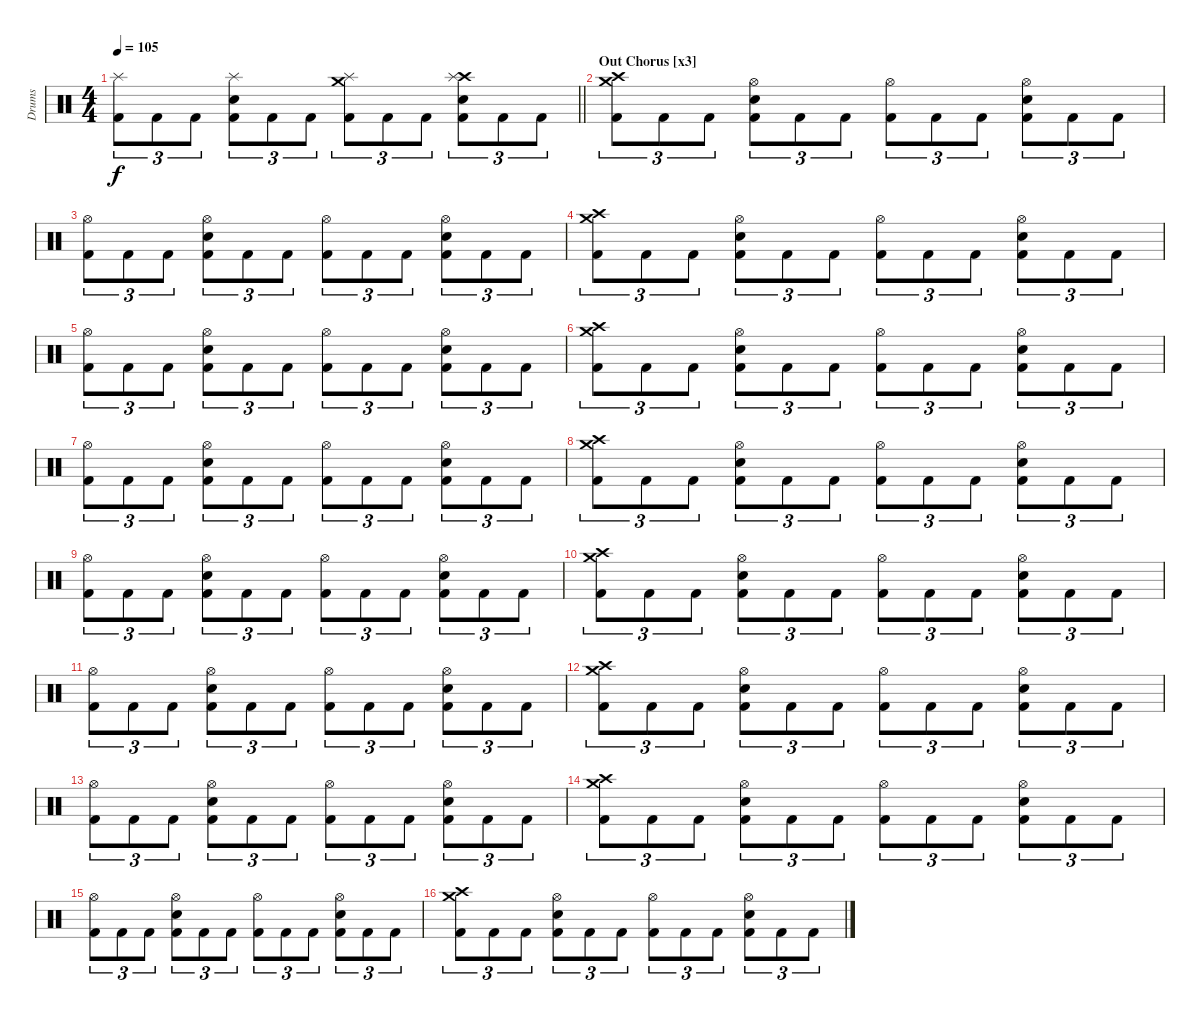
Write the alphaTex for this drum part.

\track ("Drums" "Drums") {instrument percussion}
\staff {score}
\articulation defaults
\ts (4 4)
\tempo 105
\clef neutral
\barLineRight lightlight
\ks c
("Splash (hit)" "Kick (hit) 2").8{tu (3 2) dy f} "Kick (hit) 2".8{tu (3 2)} "Kick (hit) 2".8{tu (3 2)} ("Splash (hit)" "Electric Snare (hit)" "Kick (hit) 2").8{tu (3 2)} "Kick (hit) 2".8{tu (3 2)} "Kick (hit) 2".8{tu (3 2)} ("Crash medium (hit)" "Splash (hit)" "Kick (hit) 2").8{tu (3 2)} "Kick (hit) 2".8{tu (3 2)} "Kick (hit) 2".8{tu (3 2)} ("Crash high (hit)" "Splash (hit)" "Electric Snare (hit)" "Kick (hit) 2").8{tu (3 2)} "Kick (hit) 2".8{tu (3 2)} "Kick (hit) 2".8{tu (3 2)} |
\section ("" "Out Chorus [x3]")
("Crash high (hit)" "Crash medium (hit)" "Kick (hit) 2").8{tu (3 2)} "Kick (hit) 2".8{tu (3 2)} "Kick (hit) 2".8{tu (3 2)} ("Hi-Hat (open)" "Electric Snare (hit)" "Kick (hit) 2").8{tu (3 2)} "Kick (hit) 2".8{tu (3 2)} "Kick (hit) 2".8{tu (3 2)} ("Hi-Hat (open)" "Kick (hit) 2").8{tu (3 2)} "Kick (hit) 2".8{tu (3 2)} "Kick (hit) 2".8{tu (3 2)} ("Hi-Hat (open)" "Electric Snare (hit)" "Kick (hit) 2").8{tu (3 2)} "Kick (hit) 2".8{tu (3 2)} "Kick (hit) 2".8{tu (3 2)} |
("Hi-Hat (open)" "Kick (hit) 2").8{tu (3 2)} "Kick (hit) 2".8{tu (3 2)} "Kick (hit) 2".8{tu (3 2)} ("Hi-Hat (open)" "Electric Snare (hit)" "Kick (hit) 2").8{tu (3 2)} "Kick (hit) 2".8{tu (3 2)} "Kick (hit) 2".8{tu (3 2)} ("Hi-Hat (open)" "Kick (hit) 2").8{tu (3 2)} "Kick (hit) 2".8{tu (3 2)} "Kick (hit) 2".8{tu (3 2)} ("Hi-Hat (open)" "Electric Snare (hit)" "Kick (hit) 2").8{tu (3 2)} "Kick (hit) 2".8{tu (3 2)} "Kick (hit) 2".8{tu (3 2)} |
("Crash high (hit)" "Crash medium (hit)" "Kick (hit) 2").8{tu (3 2)} "Kick (hit) 2".8{tu (3 2)} "Kick (hit) 2".8{tu (3 2)} ("Hi-Hat (open)" "Electric Snare (hit)" "Kick (hit) 2").8{tu (3 2)} "Kick (hit) 2".8{tu (3 2)} "Kick (hit) 2".8{tu (3 2)} ("Hi-Hat (open)" "Kick (hit) 2").8{tu (3 2)} "Kick (hit) 2".8{tu (3 2)} "Kick (hit) 2".8{tu (3 2)} ("Hi-Hat (open)" "Electric Snare (hit)" "Kick (hit) 2").8{tu (3 2)} "Kick (hit) 2".8{tu (3 2)} "Kick (hit) 2".8{tu (3 2)} |
("Hi-Hat (open)" "Kick (hit) 2").8{tu (3 2)} "Kick (hit) 2".8{tu (3 2)} "Kick (hit) 2".8{tu (3 2)} ("Hi-Hat (open)" "Electric Snare (hit)" "Kick (hit) 2").8{tu (3 2)} "Kick (hit) 2".8{tu (3 2)} "Kick (hit) 2".8{tu (3 2)} ("Hi-Hat (open)" "Kick (hit) 2").8{tu (3 2)} "Kick (hit) 2".8{tu (3 2)} "Kick (hit) 2".8{tu (3 2)} ("Hi-Hat (open)" "Electric Snare (hit)" "Kick (hit) 2").8{tu (3 2)} "Kick (hit) 2".8{tu (3 2)} "Kick (hit) 2".8{tu (3 2)} |
("Crash high (hit)" "Crash medium (hit)" "Kick (hit) 2").8{tu (3 2)} "Kick (hit) 2".8{tu (3 2)} "Kick (hit) 2".8{tu (3 2)} ("Hi-Hat (open)" "Electric Snare (hit)" "Kick (hit) 2").8{tu (3 2)} "Kick (hit) 2".8{tu (3 2)} "Kick (hit) 2".8{tu (3 2)} ("Hi-Hat (open)" "Kick (hit) 2").8{tu (3 2)} "Kick (hit) 2".8{tu (3 2)} "Kick (hit) 2".8{tu (3 2)} ("Hi-Hat (open)" "Electric Snare (hit)" "Kick (hit) 2").8{tu (3 2)} "Kick (hit) 2".8{tu (3 2)} "Kick (hit) 2".8{tu (3 2)} |
("Hi-Hat (open)" "Kick (hit) 2").8{tu (3 2)} "Kick (hit) 2".8{tu (3 2)} "Kick (hit) 2".8{tu (3 2)} ("Hi-Hat (open)" "Electric Snare (hit)" "Kick (hit) 2").8{tu (3 2)} "Kick (hit) 2".8{tu (3 2)} "Kick (hit) 2".8{tu (3 2)} ("Hi-Hat (open)" "Kick (hit) 2").8{tu (3 2)} "Kick (hit) 2".8{tu (3 2)} "Kick (hit) 2".8{tu (3 2)} ("Hi-Hat (open)" "Electric Snare (hit)" "Kick (hit) 2").8{tu (3 2)} "Kick (hit) 2".8{tu (3 2)} "Kick (hit) 2".8{tu (3 2)} |
("Crash high (hit)" "Crash medium (hit)" "Kick (hit) 2").8{tu (3 2)} "Kick (hit) 2".8{tu (3 2)} "Kick (hit) 2".8{tu (3 2)} ("Hi-Hat (open)" "Electric Snare (hit)" "Kick (hit) 2").8{tu (3 2)} "Kick (hit) 2".8{tu (3 2)} "Kick (hit) 2".8{tu (3 2)} ("Hi-Hat (open)" "Kick (hit) 2").8{tu (3 2)} "Kick (hit) 2".8{tu (3 2)} "Kick (hit) 2".8{tu (3 2)} ("Hi-Hat (open)" "Electric Snare (hit)" "Kick (hit) 2").8{tu (3 2)} "Kick (hit) 2".8{tu (3 2)} "Kick (hit) 2".8{tu (3 2)} |
("Hi-Hat (open)" "Kick (hit) 2").8{tu (3 2)} "Kick (hit) 2".8{tu (3 2)} "Kick (hit) 2".8{tu (3 2)} ("Hi-Hat (open)" "Electric Snare (hit)" "Kick (hit) 2").8{tu (3 2)} "Kick (hit) 2".8{tu (3 2)} "Kick (hit) 2".8{tu (3 2)} ("Hi-Hat (open)" "Kick (hit) 2").8{tu (3 2)} "Kick (hit) 2".8{tu (3 2)} "Kick (hit) 2".8{tu (3 2)} ("Hi-Hat (open)" "Electric Snare (hit)" "Kick (hit) 2").8{tu (3 2)} "Kick (hit) 2".8{tu (3 2)} "Kick (hit) 2".8{tu (3 2)} |
("Crash high (hit)" "Crash medium (hit)" "Kick (hit) 2").8{tu (3 2)} "Kick (hit) 2".8{tu (3 2)} "Kick (hit) 2".8{tu (3 2)} ("Hi-Hat (open)" "Electric Snare (hit)" "Kick (hit) 2").8{tu (3 2)} "Kick (hit) 2".8{tu (3 2)} "Kick (hit) 2".8{tu (3 2)} ("Hi-Hat (open)" "Kick (hit) 2").8{tu (3 2)} "Kick (hit) 2".8{tu (3 2)} "Kick (hit) 2".8{tu (3 2)} ("Hi-Hat (open)" "Electric Snare (hit)" "Kick (hit) 2").8{tu (3 2)} "Kick (hit) 2".8{tu (3 2)} "Kick (hit) 2".8{tu (3 2)} |
("Hi-Hat (open)" "Kick (hit) 2").8{tu (3 2)} "Kick (hit) 2".8{tu (3 2)} "Kick (hit) 2".8{tu (3 2)} ("Hi-Hat (open)" "Electric Snare (hit)" "Kick (hit) 2").8{tu (3 2)} "Kick (hit) 2".8{tu (3 2)} "Kick (hit) 2".8{tu (3 2)} ("Hi-Hat (open)" "Kick (hit) 2").8{tu (3 2)} "Kick (hit) 2".8{tu (3 2)} "Kick (hit) 2".8{tu (3 2)} ("Hi-Hat (open)" "Electric Snare (hit)" "Kick (hit) 2").8{tu (3 2)} "Kick (hit) 2".8{tu (3 2)} "Kick (hit) 2".8{tu (3 2)} |
("Crash high (hit)" "Crash medium (hit)" "Kick (hit) 2").8{tu (3 2)} "Kick (hit) 2".8{tu (3 2)} "Kick (hit) 2".8{tu (3 2)} ("Hi-Hat (open)" "Electric Snare (hit)" "Kick (hit) 2").8{tu (3 2)} "Kick (hit) 2".8{tu (3 2)} "Kick (hit) 2".8{tu (3 2)} ("Hi-Hat (open)" "Kick (hit) 2").8{tu (3 2)} "Kick (hit) 2".8{tu (3 2)} "Kick (hit) 2".8{tu (3 2)} ("Hi-Hat (open)" "Electric Snare (hit)" "Kick (hit) 2").8{tu (3 2)} "Kick (hit) 2".8{tu (3 2)} "Kick (hit) 2".8{tu (3 2)} |
("Hi-Hat (open)" "Kick (hit) 2").8{tu (3 2)} "Kick (hit) 2".8{tu (3 2)} "Kick (hit) 2".8{tu (3 2)} ("Hi-Hat (open)" "Electric Snare (hit)" "Kick (hit) 2").8{tu (3 2)} "Kick (hit) 2".8{tu (3 2)} "Kick (hit) 2".8{tu (3 2)} ("Hi-Hat (open)" "Kick (hit) 2").8{tu (3 2)} "Kick (hit) 2".8{tu (3 2)} "Kick (hit) 2".8{tu (3 2)} ("Hi-Hat (open)" "Electric Snare (hit)" "Kick (hit) 2").8{tu (3 2)} "Kick (hit) 2".8{tu (3 2)} "Kick (hit) 2".8{tu (3 2)} |
("Crash high (hit)" "Crash medium (hit)" "Kick (hit) 2").8{tu (3 2)} "Kick (hit) 2".8{tu (3 2)} "Kick (hit) 2".8{tu (3 2)} ("Hi-Hat (open)" "Electric Snare (hit)" "Kick (hit) 2").8{tu (3 2)} "Kick (hit) 2".8{tu (3 2)} "Kick (hit) 2".8{tu (3 2)} ("Hi-Hat (open)" "Kick (hit) 2").8{tu (3 2)} "Kick (hit) 2".8{tu (3 2)} "Kick (hit) 2".8{tu (3 2)} ("Hi-Hat (open)" "Electric Snare (hit)" "Kick (hit) 2").8{tu (3 2)} "Kick (hit) 2".8{tu (3 2)} "Kick (hit) 2".8{tu (3 2)} |
("Hi-Hat (open)" "Kick (hit) 2").8{tu (3 2)} "Kick (hit) 2".8{tu (3 2)} "Kick (hit) 2".8{tu (3 2)} ("Hi-Hat (open)" "Electric Snare (hit)" "Kick (hit) 2").8{tu (3 2)} "Kick (hit) 2".8{tu (3 2)} "Kick (hit) 2".8{tu (3 2)} ("Hi-Hat (open)" "Kick (hit) 2").8{tu (3 2)} "Kick (hit) 2".8{tu (3 2)} "Kick (hit) 2".8{tu (3 2)} ("Hi-Hat (open)" "Electric Snare (hit)" "Kick (hit) 2").8{tu (3 2)} "Kick (hit) 2".8{tu (3 2)} "Kick (hit) 2".8{tu (3 2)} |
("Crash high (hit)" "Crash medium (hit)" "Kick (hit) 2").8{tu (3 2)} "Kick (hit) 2".8{tu (3 2)} "Kick (hit) 2".8{tu (3 2)} ("Hi-Hat (open)" "Electric Snare (hit)" "Kick (hit) 2").8{tu (3 2)} "Kick (hit) 2".8{tu (3 2)} "Kick (hit) 2".8{tu (3 2)} ("Hi-Hat (open)" "Kick (hit) 2").8{tu (3 2)} "Kick (hit) 2".8{tu (3 2)} "Kick (hit) 2".8{tu (3 2)} ("Hi-Hat (open)" "Electric Snare (hit)" "Kick (hit) 2").8{tu (3 2)} "Kick (hit) 2".8{tu (3 2)} "Kick (hit) 2".8{tu (3 2)}
